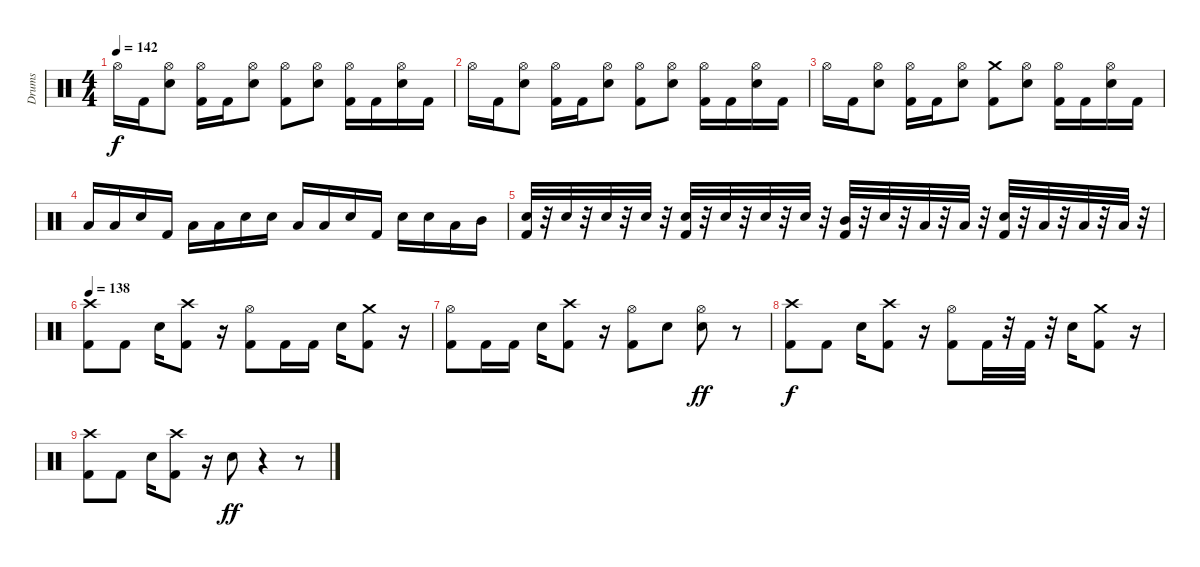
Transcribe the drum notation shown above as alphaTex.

\track ("Drums" "Drums") {instrument percussion}
\staff {score}
\articulation defaults
\ts (4 4)
\tempo 142
\clef neutral
\ks c "Hi-Hat (open)".16{dy f} "Kick (hit) 2".16
("Hi-Hat (open)" "Electric Snare (hit)").8 ("Hi-Hat (open)" "Kick (hit) 2").16 "Kick (hit) 2".16 ("Hi-Hat (open)" "Electric Snare (hit)").8 ("Kick (hit) 2" "Hi-Hat (open)").8 ("Electric Snare (hit)" "Hi-Hat (open)").8 ("Hi-Hat (open)" "Kick (hit) 2").16 "Kick (hit) 2".16 ("Hi-Hat (open)" "Electric Snare (hit)").16 "Kick (hit) 2".16 |
"Hi-Hat (open)".16 "Kick (hit) 2".16 ("Hi-Hat (open)" "Electric Snare (hit)").8 ("Hi-Hat (open)" "Kick (hit) 2").16 "Kick (hit) 2".16 ("Hi-Hat (open)" "Electric Snare (hit)").8 ("Kick (hit) 2" "Hi-Hat (open)").8 ("Electric Snare (hit)" "Hi-Hat (open)").8 ("Hi-Hat (open)" "Kick (hit) 2").16 "Kick (hit) 2".16 ("Hi-Hat (open)" "Electric Snare (hit)").16 "Kick (hit) 2".16 |
"Hi-Hat (open)".16 "Kick (hit) 2".16 ("Hi-Hat (open)" "Electric Snare (hit)").8 ("Hi-Hat (open)" "Kick (hit) 2").16 "Kick (hit) 2".16 ("Hi-Hat (open)" "Electric Snare (hit)").8 ("Kick (hit) 2" "Crash medium (hit)").8 ("Electric Snare (hit)" "Hi-Hat (open)").8 ("Hi-Hat (open)" "Kick (hit) 2").16 "Kick (hit) 2".16 ("Hi-Hat (open)" "Electric Snare (hit)").16 "Kick (hit) 2".16 |
"Low Tom (hit)".16 "Low Tom (hit)".16 "Electric Snare (hit)".16 "Kick (hit) 2".16 "Low Tom (hit)".16 "Low Tom (hit)".16 "Electric Snare (hit)".16 "Electric Snare (hit)".16 "Low Tom (hit)".16 "Low Tom (hit)".16 "Electric Snare (hit)".16 "Kick (hit) 2".16 "Electric Snare (hit)".16 "Electric Snare (hit)".16 "Low Tom (hit)".16 "Mid Tom (hit)".16 |
("Electric Snare (hit)" "Kick (hit) 2").32 r.32 "Electric Snare (hit)".32 r.32 "Electric Snare (hit)".32 r.32 "Electric Snare (hit)".32 r.32 ("Electric Snare (hit)" "Kick (hit) 2").32 r.32 "Electric Snare (hit)".32 r.32 "Electric Snare (hit)".32 r.32 "Electric Snare (hit)".32 r.32 ("Kick (hit) 2" "Mid Tom (hit)").32 r.32 "Electric Snare (hit)".32 r.32 "Low Tom (hit)".32 r.32 "Low Tom (hit)".32 r.32 ("Kick (hit) 2" "Electric Snare (hit)").32 r.32 "Low Tom (hit)".32 r.32 "Low Floor Tom (hit)".32 r.32 "Low Floor Tom (hit)".32 r.32 |
\tempo 138
("Kick (hit) 2" "Crash high (hit)").8 "Kick (hit) 2".8 "Electric Snare (hit)".16 ("Kick (hit) 2" "Crash high (hit)").8 r.16 ("Kick (hit) 2" "Hi-Hat (open)").8 "Kick (hit) 2".16 "Kick (hit) 2".16 "Electric Snare (hit)".16 ("Kick (hit) 2" "Crash medium (hit)").8 r.16 |
("Kick (hit) 2" "Hi-Hat (open)").8 "Kick (hit) 2".16 "Kick (hit) 2".16 "Electric Snare (hit)".16 ("Kick (hit) 2" "Crash high (hit)").8 r.16 ("Kick (hit) 2" "Hi-Hat (open)").8 "Electric Snare (hit)".8 ("Electric Snare (hit)" "Hi-Hat (open)").8{dy ff} r.8 |
("Kick (hit) 2" "Crash high (hit)").8{dy f} "Kick (hit) 2".8 "Electric Snare (hit)".16 ("Kick (hit) 2" "Crash high (hit)").8 r.16 ("Kick (hit) 2" "Hi-Hat (open)").8 "Kick (hit) 2".32 r.32 "Kick (hit) 2".32 r.32 "Electric Snare (hit)".16 ("Kick (hit) 2" "Crash medium (hit)").8 r.16 |
("Kick (hit) 2" "Crash high (hit)").8 "Kick (hit) 2".8 "Electric Snare (hit)".16 ("Kick (hit) 2" "Crash high (hit)").8 r.16 "Electric Snare (hit)".8{dy ff} r.4 r.8
